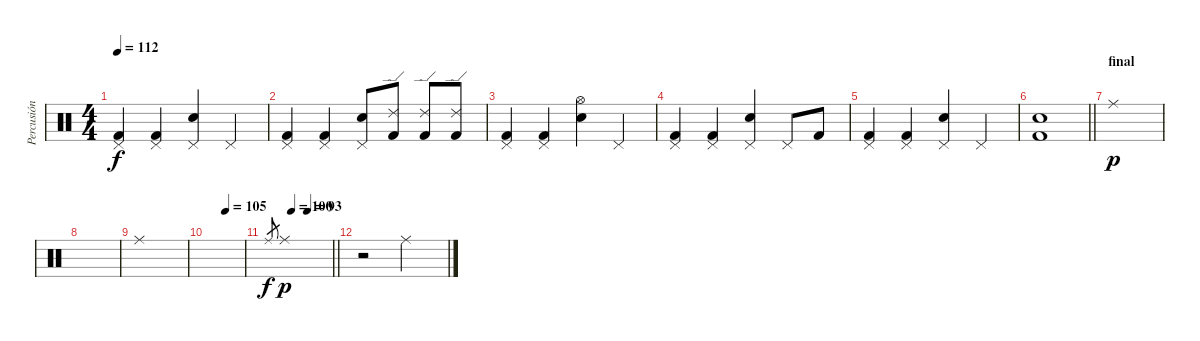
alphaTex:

\track ("Percusión" "Percusión") {instrument percussion}
\staff {score}
\articulation defaults
\ts (4 4)
\tempo 112
\clef neutral
\ks c
("Kick (hit) 2" "Pedal Hi-Hat (hit)").4{dy f} ("Kick (hit) 2" "Pedal Hi-Hat (hit)").4 ("Electric Snare (hit)" "Pedal Hi-Hat (hit)").4 "Pedal Hi-Hat (hit)".4 |
("Kick (hit) 2" "Pedal Hi-Hat (hit)").4 ("Kick (hit) 2" "Pedal Hi-Hat (hit)").4 ("Electric Snare (hit)" "Pedal Hi-Hat (hit)").8 ("Ride (edge) 2" "Kick (hit) 2").8 ("Ride (edge) 2" "Kick (hit) 2").8 ("Kick (hit) 2" "Ride (edge) 2").8 |
("Kick (hit) 2" "Pedal Hi-Hat (hit)").4 ("Kick (hit) 2" "Pedal Hi-Hat (hit)").4 ("Electric Snare (hit)" "Hi-Hat (open)").4 "Pedal Hi-Hat (hit)".4 |
("Kick (hit) 2" "Pedal Hi-Hat (hit)").4 ("Kick (hit) 2" "Pedal Hi-Hat (hit)").4 ("Electric Snare (hit)" "Pedal Hi-Hat (hit)").4 "Pedal Hi-Hat (hit)".8 "Kick (hit) 2".8 |
("Kick (hit) 2" "Pedal Hi-Hat (hit)").4 ("Kick (hit) 2" "Pedal Hi-Hat (hit)").4 ("Electric Snare (hit)" "Pedal Hi-Hat (hit)").4 "Pedal Hi-Hat (hit)".4 |
\barLineRight lightlight
("Electric Snare (hit)" "Kick (hit) 2").1 |
\section ("" "final")
"Ride (middle)".1{dy p} |
|
"Ride (middle)".1 |
\tempo (105 0.5)
|
\tempo (100 0.375)
\tempo (93 0.625)
\barLineRight lightlight "Ride (middle)".8{gr dy f} "Ride (middle)".1{dy p}
|
r.2 "Ride (middle)".2
